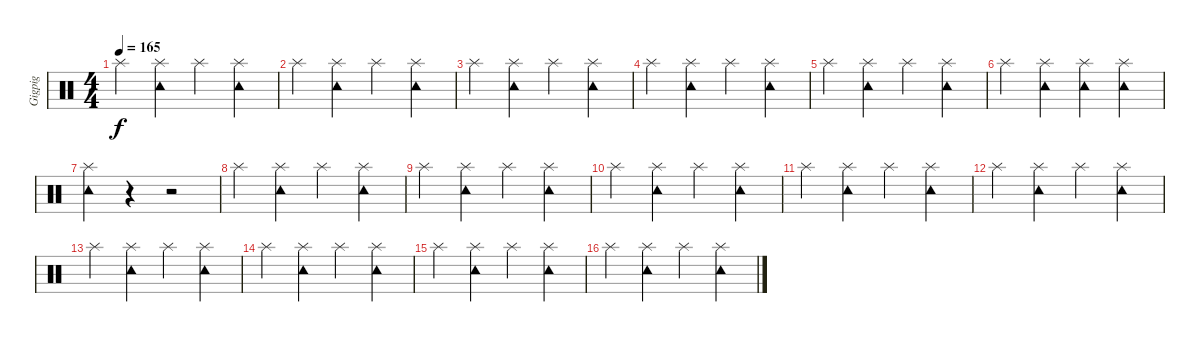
\track ("Gigpig" "Gigpig") {instrument percussion}
\staff {score}
\articulation defaults
\ts (4 4)
\tempo 165
\clef neutral
\ks c "Splash (hit)".4{dy f}
("Splash (hit)" "Tambourine (hit)").4 "Splash (hit)".4 ("Splash (hit)" "Tambourine (hit)").4 |
"Splash (hit)".4 ("Splash (hit)" "Tambourine (hit)").4 "Splash (hit)".4 ("Splash (hit)" "Tambourine (hit)").4 |
"Splash (hit)".4 ("Splash (hit)" "Tambourine (hit)").4 "Splash (hit)".4 ("Splash (hit)" "Tambourine (hit)").4 |
"Splash (hit)".4 ("Splash (hit)" "Tambourine (hit)").4 "Splash (hit)".4 ("Splash (hit)" "Tambourine (hit)").4 |
"Splash (hit)".4 ("Splash (hit)" "Tambourine (hit)").4 "Splash (hit)".4 ("Splash (hit)" "Tambourine (hit)").4 |
"Splash (hit)".4 ("Splash (hit)" "Tambourine (hit)").4 ("Splash (hit)" "Tambourine (hit)").4 ("Splash (hit)" "Tambourine (hit)").4 |
("Splash (hit)" "Tambourine (hit)").4 r.4 r.2 |
"Splash (hit)".4 ("Splash (hit)" "Tambourine (hit)").4 "Splash (hit)".4 ("Splash (hit)" "Tambourine (hit)").4 |
"Splash (hit)".4 ("Splash (hit)" "Tambourine (hit)").4 "Splash (hit)".4 ("Splash (hit)" "Tambourine (hit)").4 |
"Splash (hit)".4 ("Splash (hit)" "Tambourine (hit)").4 "Splash (hit)".4 ("Splash (hit)" "Tambourine (hit)").4 |
"Splash (hit)".4 ("Splash (hit)" "Tambourine (hit)").4 "Splash (hit)".4 ("Splash (hit)" "Tambourine (hit)").4 |
"Splash (hit)".4 ("Splash (hit)" "Tambourine (hit)").4 "Splash (hit)".4 ("Splash (hit)" "Tambourine (hit)").4 |
"Splash (hit)".4 ("Splash (hit)" "Tambourine (hit)").4 "Splash (hit)".4 ("Splash (hit)" "Tambourine (hit)").4 |
"Splash (hit)".4 ("Splash (hit)" "Tambourine (hit)").4 "Splash (hit)".4 ("Splash (hit)" "Tambourine (hit)").4 |
"Splash (hit)".4 ("Splash (hit)" "Tambourine (hit)").4 "Splash (hit)".4 ("Splash (hit)" "Tambourine (hit)").4 |
"Splash (hit)".4 ("Splash (hit)" "Tambourine (hit)").4 "Splash (hit)".4 ("Splash (hit)" "Tambourine (hit)").4
